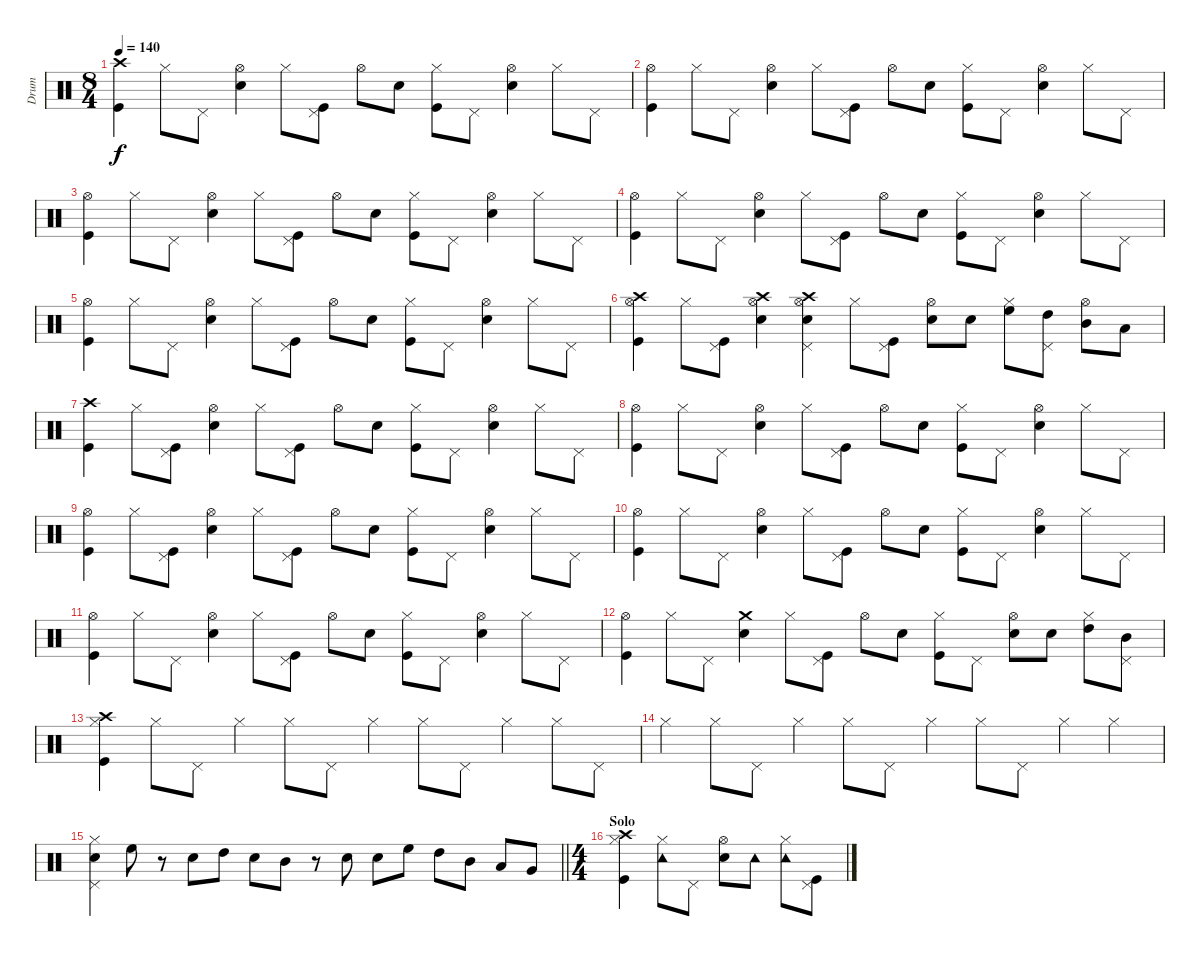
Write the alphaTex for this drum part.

\track ("Drum" "Drum") {instrument percussion}
\staff {score}
\articulation defaults
\ts (8 4)
\tempo 140
\clef neutral
\ks c
("Kick (hit)" "Crash high (hit)").4{dy f} "Hi-Hat (closed)".8 "Pedal Hi-Hat (hit)".8 ("Snare (hit) 2" "Hi-Hat (open)").4 "Hi-Hat (closed)".8 ("Pedal Hi-Hat (hit)" "Kick (hit)").8 "Hi-Hat (open)".8 "Snare (hit) 2".8 ("Kick (hit)" "Hi-Hat (closed)").8 "Pedal Hi-Hat (hit)".8 ("Snare (hit) 2" "Hi-Hat (open)").4 "Hi-Hat (closed)".8 "Pedal Hi-Hat (hit)".8 |
("Kick (hit)" "Hi-Hat (open)").4 "Hi-Hat (closed)".8 "Pedal Hi-Hat (hit)".8 ("Snare (hit) 2" "Hi-Hat (open)").4 "Hi-Hat (closed)".8 ("Pedal Hi-Hat (hit)" "Kick (hit)").8 "Hi-Hat (open)".8 "Snare (hit) 2".8 ("Kick (hit)" "Hi-Hat (closed)").8 "Pedal Hi-Hat (hit)".8 ("Snare (hit) 2" "Hi-Hat (open)").4 "Hi-Hat (closed)".8 "Pedal Hi-Hat (hit)".8 |
("Kick (hit)" "Hi-Hat (open)").4 "Hi-Hat (closed)".8 "Pedal Hi-Hat (hit)".8 ("Snare (hit) 2" "Hi-Hat (open)").4 "Hi-Hat (closed)".8 ("Pedal Hi-Hat (hit)" "Kick (hit)").8 "Hi-Hat (open)".8 "Snare (hit) 2".8 ("Kick (hit)" "Hi-Hat (closed)").8 "Pedal Hi-Hat (hit)".8 ("Snare (hit) 2" "Hi-Hat (open)").4 "Hi-Hat (closed)".8 "Pedal Hi-Hat (hit)".8 |
("Kick (hit)" "Hi-Hat (open)").4 "Hi-Hat (closed)".8 "Pedal Hi-Hat (hit)".8 ("Snare (hit) 2" "Hi-Hat (open)").4 "Hi-Hat (closed)".8 ("Pedal Hi-Hat (hit)" "Kick (hit)").8 "Hi-Hat (open)".8 "Snare (hit) 2".8 ("Kick (hit)" "Hi-Hat (closed)").8 "Pedal Hi-Hat (hit)".8 ("Snare (hit) 2" "Hi-Hat (open)").4 "Hi-Hat (closed)".8 "Pedal Hi-Hat (hit)".8 |
("Kick (hit)" "Hi-Hat (open)").4 "Hi-Hat (closed)".8 "Pedal Hi-Hat (hit)".8 ("Snare (hit) 2" "Hi-Hat (open)").4 "Hi-Hat (closed)".8 ("Pedal Hi-Hat (hit)" "Kick (hit)").8 "Hi-Hat (open)".8 "Snare (hit) 2".8 ("Kick (hit)" "Hi-Hat (closed)").8 "Pedal Hi-Hat (hit)".8 ("Snare (hit) 2" "Hi-Hat (open)").4 "Hi-Hat (closed)".8 "Pedal Hi-Hat (hit)".8 |
("Kick (hit)" "Hi-Hat (open)" "Crash high (hit)").4 "Hi-Hat (closed)".8 ("Pedal Hi-Hat (hit)" "Kick (hit)").8 ("Snare (hit) 2" "Hi-Hat (open)" "Crash high (hit)").4 ("Snare (hit) 2" "Hi-Hat (open)" "Crash high (hit)" "Pedal Hi-Hat (hit)").4 "Hi-Hat (closed)".8 ("Kick (hit)" "Pedal Hi-Hat (hit)").8 ("Snare (hit) 2" "Hi-Hat (open)").8 "Snare (hit) 2".8 ("High Floor Tom (hit)" "Hi-Hat (closed)").8 ("High Tom (hit)" "Pedal Hi-Hat (hit)").8 ("Mid Tom (hit)" "Hi-Hat (open)").8 "Low Tom (hit)".8 |
("Kick (hit)" "Crash high (hit)").4 "Hi-Hat (closed)".8 ("Pedal Hi-Hat (hit)" "Kick (hit)").8 ("Snare (hit) 2" "Hi-Hat (open)").4 "Hi-Hat (closed)".8 ("Pedal Hi-Hat (hit)" "Kick (hit)").8 "Hi-Hat (open)".8 "Snare (hit) 2".8 ("Kick (hit)" "Hi-Hat (closed)").8 "Pedal Hi-Hat (hit)".8 ("Snare (hit) 2" "Hi-Hat (open)").4 "Hi-Hat (closed)".8 "Pedal Hi-Hat (hit)".8 |
("Kick (hit)" "Hi-Hat (open)").4 "Hi-Hat (closed)".8 "Pedal Hi-Hat (hit)".8 ("Snare (hit) 2" "Hi-Hat (open)").4 "Hi-Hat (closed)".8 ("Pedal Hi-Hat (hit)" "Kick (hit)").8 "Hi-Hat (open)".8 "Snare (hit) 2".8 ("Kick (hit)" "Hi-Hat (closed)").8 "Pedal Hi-Hat (hit)".8 ("Snare (hit) 2" "Hi-Hat (open)").4 "Hi-Hat (closed)".8 "Pedal Hi-Hat (hit)".8 |
("Kick (hit)" "Hi-Hat (open)").4 "Hi-Hat (closed)".8 ("Pedal Hi-Hat (hit)" "Kick (hit)").8 ("Snare (hit) 2" "Hi-Hat (open)").4 "Hi-Hat (closed)".8 ("Pedal Hi-Hat (hit)" "Kick (hit)").8 "Hi-Hat (open)".8 "Snare (hit) 2".8 ("Kick (hit)" "Hi-Hat (closed)").8 "Pedal Hi-Hat (hit)".8 ("Snare (hit) 2" "Hi-Hat (open)").4 "Hi-Hat (closed)".8 "Pedal Hi-Hat (hit)".8 |
("Kick (hit)" "Hi-Hat (open)").4 "Hi-Hat (closed)".8 "Pedal Hi-Hat (hit)".8 ("Snare (hit) 2" "Hi-Hat (open)").4 "Hi-Hat (closed)".8 ("Pedal Hi-Hat (hit)" "Kick (hit)").8 "Hi-Hat (open)".8 "Snare (hit) 2".8 ("Kick (hit)" "Hi-Hat (closed)").8 "Pedal Hi-Hat (hit)".8 ("Snare (hit) 2" "Hi-Hat (open)").4 "Hi-Hat (closed)".8 "Pedal Hi-Hat (hit)".8 |
("Kick (hit)" "Hi-Hat (open)").4 "Hi-Hat (closed)".8 "Pedal Hi-Hat (hit)".8 ("Snare (hit) 2" "Hi-Hat (open)").4 "Hi-Hat (closed)".8 ("Pedal Hi-Hat (hit)" "Kick (hit)").8 "Hi-Hat (open)".8 "Snare (hit) 2".8 ("Kick (hit)" "Hi-Hat (closed)").8 "Pedal Hi-Hat (hit)".8 ("Snare (hit) 2" "Hi-Hat (open)").4 "Hi-Hat (closed)".8 "Pedal Hi-Hat (hit)".8 |
("Kick (hit)" "Hi-Hat (open)").4 "Hi-Hat (closed)".8 "Pedal Hi-Hat (hit)".8 ("Snare (hit) 2" "Crash medium (hit)").4 "Hi-Hat (closed)".8 ("Pedal Hi-Hat (hit)" "Kick (hit)").8 "Hi-Hat (open)".8 "Snare (hit) 2".8 ("Kick (hit)" "Hi-Hat (closed)").8 "Pedal Hi-Hat (hit)".8 ("Snare (hit) 2" "Hi-Hat (open)").8 "Snare (hit) 2".8 ("High Tom (hit)" "Hi-Hat (closed)").8 ("Mid Tom (hit)" "Pedal Hi-Hat (hit)").8 |
("Kick (hit)" "Hi-Hat (closed)" "Crash high (hit)").4 "Hi-Hat (closed)".8 "Pedal Hi-Hat (hit)".8 "Hi-Hat (closed)".4 "Hi-Hat (closed)".8 "Pedal Hi-Hat (hit)".8 "Hi-Hat (closed)".4 "Hi-Hat (closed)".8 "Pedal Hi-Hat (hit)".8 "Hi-Hat (closed)".4 "Hi-Hat (closed)".8 "Pedal Hi-Hat (hit)".8 |
"Hi-Hat (closed)".4 "Hi-Hat (closed)".8 "Pedal Hi-Hat (hit)".8 "Hi-Hat (closed)".4 "Hi-Hat (closed)".8 "Pedal Hi-Hat (hit)".8 "Hi-Hat (closed)".4 "Hi-Hat (closed)".8 "Pedal Hi-Hat (hit)".8 "Hi-Hat (closed)".4 "Hi-Hat (closed)".4 |
\barLineRight lightlight
("Hi-Hat (closed)" "Pedal Hi-Hat (hit)" "Snare (hit) 2").4 "High Floor Tom (hit)".8 r.8 "Snare (hit) 2".8 "High Tom (hit)".8 "Snare (hit) 2".8 "Mid Tom (hit)".8 r.8 "Snare (hit) 2".8 "Snare (hit) 2".8 "High Floor Tom (hit)".8 "High Tom (hit)".8 "Mid Tom (hit)".8 "Low Tom (hit)".8 "Very Low Tom (hit)".8 |
\ts (4 4)
\section ("" "Solo")
("Kick (hit)" "Hi-Hat (closed)" "Crash high (hit)").4 ("Hi-Hat (closed)" "Tambourine (hit)").8 "Pedal Hi-Hat (hit)".8 ("Snare (hit) 2" "Hi-Hat (open)").8 "Tambourine (hit)".8 ("Hi-Hat (closed)" "Tambourine (hit)").8 ("Pedal Hi-Hat (hit)" "Kick (hit)").8
